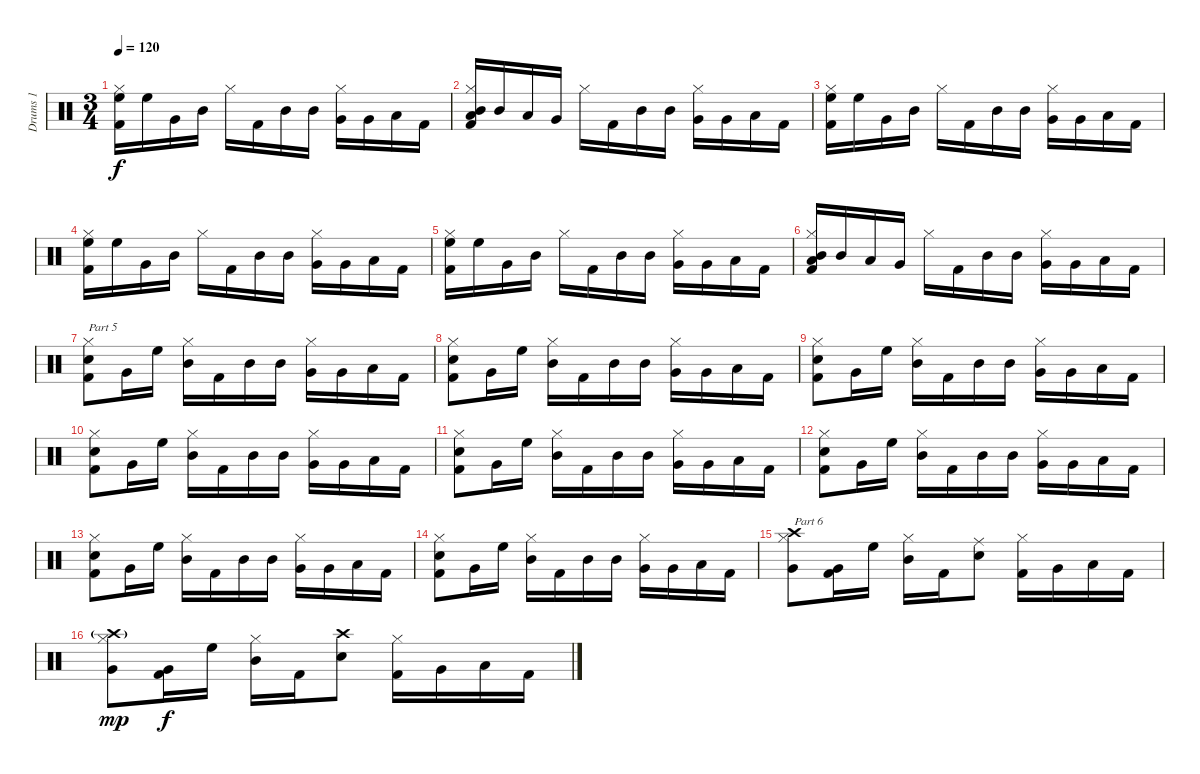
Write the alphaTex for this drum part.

\track ("Drums 1" "Drums 1") {instrument percussion}
\staff {score}
\articulation defaults
\ts (3 4)
\tempo 120
\clef neutral
\ks c
("High Floor Tom (hit)" "Kick (hit) 2" "Hi-Hat (closed)").16{dy f} "High Floor Tom (hit)".16 "Very Low Tom (hit)".16 "Mid Tom (hit)".16 "Hi-Hat (closed)".16 "Kick (hit) 2".16 "Mid Tom (hit)".16 "Mid Tom (hit)".16 ("Very Low Tom (hit)" "Hi-Hat (closed)").16 "Very Low Tom (hit)".16 "Low Floor Tom (hit)".16 "Kick (hit) 2".16 |
("Mid Tom (hit)" "Low Floor Tom (hit)" "Kick (hit) 2" "Hi-Hat (closed)").16 "Mid Tom (hit)".16 "Low Floor Tom (hit)".16 "Very Low Tom (hit)".16 "Hi-Hat (closed)".16 "Kick (hit) 2".16 "Mid Tom (hit)".16 "Mid Tom (hit)".16 ("Very Low Tom (hit)" "Hi-Hat (closed)").16 "Very Low Tom (hit)".16 "Low Floor Tom (hit)".16 "Kick (hit) 2".16 |
("High Floor Tom (hit)" "Kick (hit) 2" "Hi-Hat (closed)").16 "High Floor Tom (hit)".16 "Very Low Tom (hit)".16 "Mid Tom (hit)".16 "Hi-Hat (closed)".16 "Kick (hit) 2".16 "Mid Tom (hit)".16 "Mid Tom (hit)".16 ("Very Low Tom (hit)" "Hi-Hat (closed)").16 "Very Low Tom (hit)".16 "Low Floor Tom (hit)".16 "Kick (hit) 2".16 |
("High Floor Tom (hit)" "Kick (hit) 2" "Hi-Hat (closed)").16 "High Floor Tom (hit)".16 "Very Low Tom (hit)".16 "Mid Tom (hit)".16 "Hi-Hat (closed)".16 "Kick (hit) 2".16 "Mid Tom (hit)".16 "Mid Tom (hit)".16 ("Very Low Tom (hit)" "Hi-Hat (closed)").16 "Very Low Tom (hit)".16 "Low Floor Tom (hit)".16 "Kick (hit) 2".16 |
("High Floor Tom (hit)" "Kick (hit) 2" "Hi-Hat (closed)").16 "High Floor Tom (hit)".16 "Very Low Tom (hit)".16 "Mid Tom (hit)".16 "Hi-Hat (closed)".16 "Kick (hit) 2".16 "Mid Tom (hit)".16 "Mid Tom (hit)".16 ("Very Low Tom (hit)" "Hi-Hat (closed)").16 "Very Low Tom (hit)".16 "Low Floor Tom (hit)".16 "Kick (hit) 2".16 |
("Mid Tom (hit)" "Low Floor Tom (hit)" "Kick (hit) 2" "Hi-Hat (closed)").16 "Mid Tom (hit)".16 "Low Floor Tom (hit)".16 "Very Low Tom (hit)".16 "Hi-Hat (closed)".16 "Kick (hit) 2".16 "Mid Tom (hit)".16 "Mid Tom (hit)".16 ("Very Low Tom (hit)" "Hi-Hat (closed)").16 "Very Low Tom (hit)".16 "Low Floor Tom (hit)".16 "Kick (hit) 2".16 |
("Snare (hit) 2" "Kick (hit) 2" "Hi-Hat (closed)").8{txt "Part 5"} "Very Low Tom (hit)".16 "High Floor Tom (hit)".16 ("Mid Tom (hit)" "Hi-Hat (closed)").16 "Kick (hit) 2".16 "Mid Tom (hit)".16 "Mid Tom (hit)".16 ("Very Low Tom (hit)" "Hi-Hat (closed)").16 "Very Low Tom (hit)".16 "Low Floor Tom (hit)".16 "Kick (hit) 2".16 |
("Snare (hit) 2" "Kick (hit) 2" "Hi-Hat (closed)").8 "Very Low Tom (hit)".16 "High Floor Tom (hit)".16 ("Mid Tom (hit)" "Hi-Hat (closed)").16 "Kick (hit) 2".16 "Mid Tom (hit)".16 "Mid Tom (hit)".16 ("Very Low Tom (hit)" "Hi-Hat (closed)").16 "Very Low Tom (hit)".16 "Low Floor Tom (hit)".16 "Kick (hit) 2".16 |
("Snare (hit) 2" "Kick (hit) 2" "Hi-Hat (closed)").8 "Very Low Tom (hit)".16 "High Floor Tom (hit)".16 ("Mid Tom (hit)" "Hi-Hat (closed)").16 "Kick (hit) 2".16 "Mid Tom (hit)".16 "Mid Tom (hit)".16 ("Very Low Tom (hit)" "Hi-Hat (closed)").16 "Very Low Tom (hit)".16 "Low Floor Tom (hit)".16 "Kick (hit) 2".16 |
("Snare (hit) 2" "Kick (hit) 2" "Hi-Hat (closed)").8 "Very Low Tom (hit)".16 "High Floor Tom (hit)".16 ("Mid Tom (hit)" "Hi-Hat (closed)").16 "Kick (hit) 2".16 "Mid Tom (hit)".16 "Mid Tom (hit)".16 ("Very Low Tom (hit)" "Hi-Hat (closed)").16 "Very Low Tom (hit)".16 "Low Floor Tom (hit)".16 "Kick (hit) 2".16 |
("Snare (hit) 2" "Kick (hit) 2" "Hi-Hat (closed)").8 "Very Low Tom (hit)".16 "High Floor Tom (hit)".16 ("Mid Tom (hit)" "Hi-Hat (closed)").16 "Kick (hit) 2".16 "Mid Tom (hit)".16 "Mid Tom (hit)".16 ("Very Low Tom (hit)" "Hi-Hat (closed)").16 "Very Low Tom (hit)".16 "Low Floor Tom (hit)".16 "Kick (hit) 2".16 |
("Snare (hit) 2" "Kick (hit) 2" "Hi-Hat (closed)").8 "Very Low Tom (hit)".16 "High Floor Tom (hit)".16 ("Mid Tom (hit)" "Hi-Hat (closed)").16 "Kick (hit) 2".16 "Mid Tom (hit)".16 "Mid Tom (hit)".16 ("Very Low Tom (hit)" "Hi-Hat (closed)").16 "Very Low Tom (hit)".16 "Low Floor Tom (hit)".16 "Kick (hit) 2".16 |
("Snare (hit) 2" "Kick (hit) 2" "Hi-Hat (closed)").8 "Very Low Tom (hit)".16 "High Floor Tom (hit)".16 ("Mid Tom (hit)" "Hi-Hat (closed)").16 "Kick (hit) 2".16 "Mid Tom (hit)".16 "Mid Tom (hit)".16 ("Very Low Tom (hit)" "Hi-Hat (closed)").16 "Very Low Tom (hit)".16 "Low Floor Tom (hit)".16 "Kick (hit) 2".16 |
("Snare (hit) 2" "Kick (hit) 2" "Hi-Hat (closed)").8 "Very Low Tom (hit)".16 "High Floor Tom (hit)".16 ("Mid Tom (hit)" "Hi-Hat (closed)").16 "Kick (hit) 2".16 "Mid Tom (hit)".16 "Mid Tom (hit)".16 ("Very Low Tom (hit)" "Hi-Hat (closed)").16 "Very Low Tom (hit)".16 "Low Floor Tom (hit)".16 "Kick (hit) 2".16 |
("Crash high (hit)" "Very Low Tom (hit)" "Hi-Hat (closed)").8{txt "Part 6"} ("Very Low Tom (hit)" "Kick (hit) 2").16 "High Floor Tom (hit)".16 ("Mid Tom (hit)" "Hi-Hat (closed)").16 "Kick (hit) 2".16 ("Ride (middle)" "Snare (hit) 2").8 ("Kick (hit) 2" "Hi-Hat (closed)").16 "Very Low Tom (hit)".16 "Low Floor Tom (hit)".16 "Kick (hit) 2".16 |
("Crash high (hit)"{g} "Very Low Tom (hit)" "Hi-Hat (closed)").8{dy mp} ("Very Low Tom (hit)" "Kick (hit) 2").16{dy f} "High Floor Tom (hit)".16 ("Mid Tom (hit)" "Hi-Hat (closed)").16 "Kick (hit) 2".16 ("Crash high (hit)" "Snare (hit) 2").8 ("Kick (hit) 2" "Hi-Hat (closed)").16 "Very Low Tom (hit)".16 "Low Floor Tom (hit)".16 "Kick (hit) 2".16
